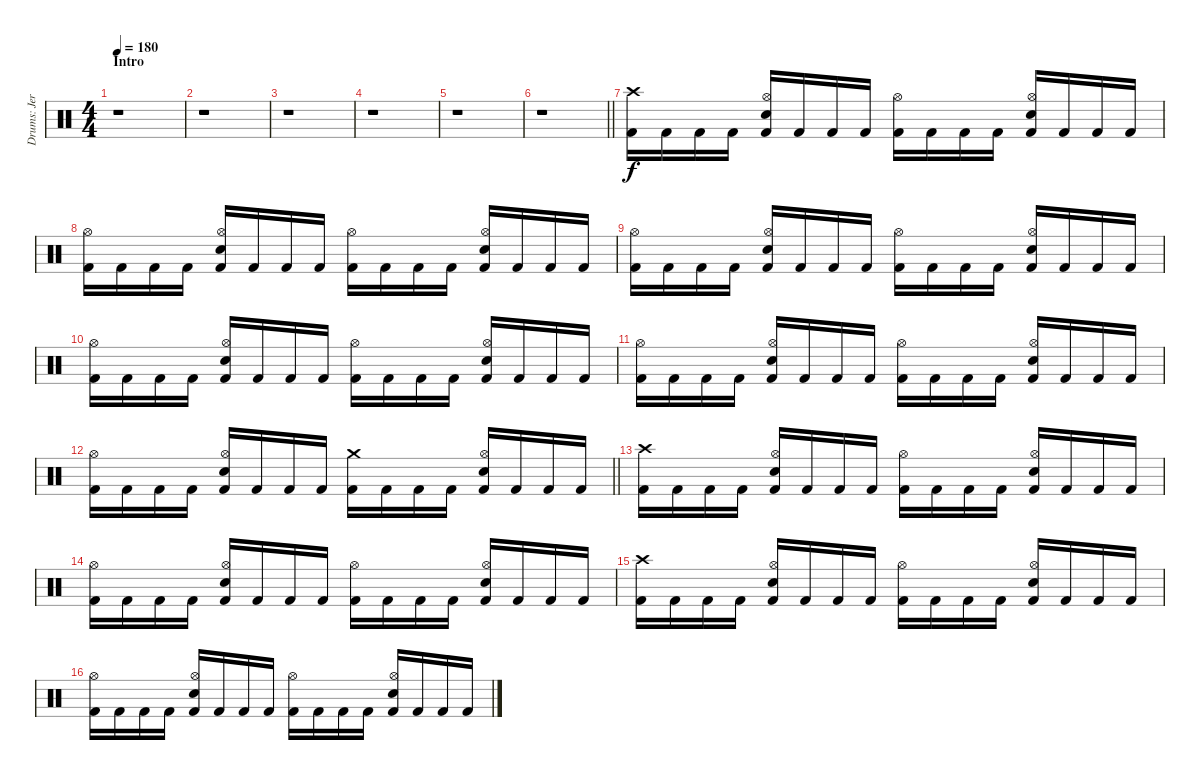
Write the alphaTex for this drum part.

\track ("Drums: Jere Luokkamäki" "Drums: Jer") {instrument percussion}
\staff {score}
\articulation defaults
\ts (4 4)
\section ("" "Intro")
\tempo 180
\clef neutral
\ks aminor
r.1{dy f} |
r.1 |
r.1 |
r.1 |
r.1 |
\barLineRight lightlight
r.1 |
("Crash high (hit)" "Kick (hit) 2").16 "Kick (hit) 2".16 "Kick (hit) 2".16 "Kick (hit) 2".16 ("Hi-Hat (open)" "Electric Snare (hit)" "Kick (hit) 2").16 "Kick (hit) 2".16 "Kick (hit) 2".16 "Kick (hit) 2".16 ("Hi-Hat (open)" "Kick (hit) 2").16 "Kick (hit) 2".16 "Kick (hit) 2".16 "Kick (hit) 2".16 ("Hi-Hat (open)" "Electric Snare (hit)" "Kick (hit) 2").16 "Kick (hit) 2".16 "Kick (hit) 2".16 "Kick (hit) 2".16 |
("Hi-Hat (open)" "Kick (hit) 2").16 "Kick (hit) 2".16 "Kick (hit) 2".16 "Kick (hit) 2".16 ("Hi-Hat (open)" "Electric Snare (hit)" "Kick (hit) 2").16 "Kick (hit) 2".16 "Kick (hit) 2".16 "Kick (hit) 2".16 ("Hi-Hat (open)" "Kick (hit) 2").16 "Kick (hit) 2".16 "Kick (hit) 2".16 "Kick (hit) 2".16 ("Hi-Hat (open)" "Electric Snare (hit)" "Kick (hit) 2").16 "Kick (hit) 2".16 "Kick (hit) 2".16 "Kick (hit) 2".16 |
("Hi-Hat (open)" "Kick (hit) 2").16 "Kick (hit) 2".16 "Kick (hit) 2".16 "Kick (hit) 2".16 ("Hi-Hat (open)" "Electric Snare (hit)" "Kick (hit) 2").16 "Kick (hit) 2".16 "Kick (hit) 2".16 "Kick (hit) 2".16 ("Hi-Hat (open)" "Kick (hit) 2").16 "Kick (hit) 2".16 "Kick (hit) 2".16 "Kick (hit) 2".16 ("Hi-Hat (open)" "Electric Snare (hit)" "Kick (hit) 2").16 "Kick (hit) 2".16 "Kick (hit) 2".16 "Kick (hit) 2".16 |
("Hi-Hat (open)" "Kick (hit) 2").16 "Kick (hit) 2".16 "Kick (hit) 2".16 "Kick (hit) 2".16 ("Hi-Hat (open)" "Electric Snare (hit)" "Kick (hit) 2").16 "Kick (hit) 2".16 "Kick (hit) 2".16 "Kick (hit) 2".16 ("Hi-Hat (open)" "Kick (hit) 2").16 "Kick (hit) 2".16 "Kick (hit) 2".16 "Kick (hit) 2".16 ("Hi-Hat (open)" "Electric Snare (hit)" "Kick (hit) 2").16 "Kick (hit) 2".16 "Kick (hit) 2".16 "Kick (hit) 2".16 |
("Hi-Hat (open)" "Kick (hit) 2").16 "Kick (hit) 2".16 "Kick (hit) 2".16 "Kick (hit) 2".16 ("Hi-Hat (open)" "Electric Snare (hit)" "Kick (hit) 2").16 "Kick (hit) 2".16 "Kick (hit) 2".16 "Kick (hit) 2".16 ("Hi-Hat (open)" "Kick (hit) 2").16 "Kick (hit) 2".16 "Kick (hit) 2".16 "Kick (hit) 2".16 ("Hi-Hat (open)" "Electric Snare (hit)" "Kick (hit) 2").16 "Kick (hit) 2".16 "Kick (hit) 2".16 "Kick (hit) 2".16 |
\barLineRight lightlight
("Hi-Hat (open)" "Kick (hit) 2").16 "Kick (hit) 2".16 "Kick (hit) 2".16 "Kick (hit) 2".16 ("Hi-Hat (open)" "Electric Snare (hit)" "Kick (hit) 2").16 "Kick (hit) 2".16 "Kick (hit) 2".16 "Kick (hit) 2".16 ("Crash medium (hit)" "Kick (hit) 2").16 "Kick (hit) 2".16 "Kick (hit) 2".16 "Kick (hit) 2".16 ("Hi-Hat (open)" "Electric Snare (hit)" "Kick (hit) 2").16 "Kick (hit) 2".16 "Kick (hit) 2".16 "Kick (hit) 2".16 |
("Crash high (hit)" "Kick (hit) 2").16 "Kick (hit) 2".16 "Kick (hit) 2".16 "Kick (hit) 2".16 ("Hi-Hat (open)" "Electric Snare (hit)" "Kick (hit) 2").16 "Kick (hit) 2".16 "Kick (hit) 2".16 "Kick (hit) 2".16 ("Hi-Hat (open)" "Kick (hit) 2").16 "Kick (hit) 2".16 "Kick (hit) 2".16 "Kick (hit) 2".16 ("Hi-Hat (open)" "Electric Snare (hit)" "Kick (hit) 2").16 "Kick (hit) 2".16 "Kick (hit) 2".16 "Kick (hit) 2".16 |
("Hi-Hat (open)" "Kick (hit) 2").16 "Kick (hit) 2".16 "Kick (hit) 2".16 "Kick (hit) 2".16 ("Hi-Hat (open)" "Electric Snare (hit)" "Kick (hit) 2").16 "Kick (hit) 2".16 "Kick (hit) 2".16 "Kick (hit) 2".16 ("Hi-Hat (open)" "Kick (hit) 2").16 "Kick (hit) 2".16 "Kick (hit) 2".16 "Kick (hit) 2".16 ("Hi-Hat (open)" "Electric Snare (hit)" "Kick (hit) 2").16 "Kick (hit) 2".16 "Kick (hit) 2".16 "Kick (hit) 2".16 |
("Crash high (hit)" "Kick (hit) 2").16 "Kick (hit) 2".16 "Kick (hit) 2".16 "Kick (hit) 2".16 ("Hi-Hat (open)" "Electric Snare (hit)" "Kick (hit) 2").16 "Kick (hit) 2".16 "Kick (hit) 2".16 "Kick (hit) 2".16 ("Hi-Hat (open)" "Kick (hit) 2").16 "Kick (hit) 2".16 "Kick (hit) 2".16 "Kick (hit) 2".16 ("Hi-Hat (open)" "Electric Snare (hit)" "Kick (hit) 2").16 "Kick (hit) 2".16 "Kick (hit) 2".16 "Kick (hit) 2".16 |
("Hi-Hat (open)" "Kick (hit) 2").16 "Kick (hit) 2".16 "Kick (hit) 2".16 "Kick (hit) 2".16 ("Hi-Hat (open)" "Electric Snare (hit)" "Kick (hit) 2").16 "Kick (hit) 2".16 "Kick (hit) 2".16 "Kick (hit) 2".16 ("Hi-Hat (open)" "Kick (hit) 2").16 "Kick (hit) 2".16 "Kick (hit) 2".16 "Kick (hit) 2".16 ("Hi-Hat (open)" "Electric Snare (hit)" "Kick (hit) 2").16 "Kick (hit) 2".16 "Kick (hit) 2".16 "Kick (hit) 2".16
